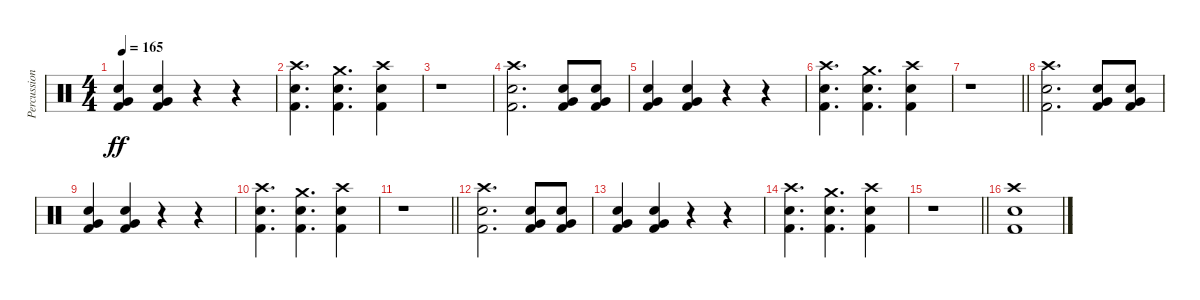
\track ("Percussion" "Percussion") {instrument percussion}
\staff {score}
\articulation defaults
\ts (4 4)
\tempo 165
\clef neutral
\ks c
("Very Low Tom (hit)" "Snare (hit) 2" "Kick (hit) 2").4{dy ff} ("Very Low Tom (hit)" "Snare (hit) 2" "Kick (hit) 2").4 r.4 r.4 |
("Crash high (hit)" "Snare (hit) 2" "Kick (hit) 2").4{d} ("Crash medium (hit)" "Snare (hit) 2" "Kick (hit) 2").4{d} ("Crash high (hit)" "Snare (hit) 2" "Kick (hit) 2").4 |
r.1 |
("Crash high (hit)" "Snare (hit) 2" "Kick (hit) 2").2{d} ("Very Low Tom (hit)" "Snare (hit) 2" "Kick (hit) 2").8 ("Very Low Tom (hit)" "Snare (hit) 2" "Kick (hit) 2").8 |
("Very Low Tom (hit)" "Snare (hit) 2" "Kick (hit) 2").4 ("Very Low Tom (hit)" "Snare (hit) 2" "Kick (hit) 2").4 r.4 r.4 |
("Crash high (hit)" "Snare (hit) 2" "Kick (hit) 2").4{d} ("Crash medium (hit)" "Snare (hit) 2" "Kick (hit) 2").4{d} ("Crash high (hit)" "Snare (hit) 2" "Kick (hit) 2").4 |
\barLineRight lightlight
r.1 |
\section ("" "")
("Crash high (hit)" "Snare (hit) 2" "Kick (hit) 2").2{d} ("Very Low Tom (hit)" "Snare (hit) 2" "Kick (hit) 2").8 ("Very Low Tom (hit)" "Snare (hit) 2" "Kick (hit) 2").8 |
("Very Low Tom (hit)" "Snare (hit) 2" "Kick (hit) 2").4 ("Very Low Tom (hit)" "Snare (hit) 2" "Kick (hit) 2").4 r.4 r.4 |
("Crash high (hit)" "Snare (hit) 2" "Kick (hit) 2").4{d} ("Crash medium (hit)" "Snare (hit) 2" "Kick (hit) 2").4{d} ("Crash high (hit)" "Snare (hit) 2" "Kick (hit) 2").4 |
\barLineRight lightlight
r.1 |
("Crash high (hit)" "Snare (hit) 2" "Kick (hit) 2").2{d} ("Very Low Tom (hit)" "Snare (hit) 2" "Kick (hit) 2").8 ("Very Low Tom (hit)" "Snare (hit) 2" "Kick (hit) 2").8 |
("Very Low Tom (hit)" "Snare (hit) 2" "Kick (hit) 2").4 ("Very Low Tom (hit)" "Snare (hit) 2" "Kick (hit) 2").4 r.4 r.4 |
("Crash high (hit)" "Snare (hit) 2" "Kick (hit) 2").4{d} ("Crash medium (hit)" "Snare (hit) 2" "Kick (hit) 2").4{d} ("Crash high (hit)" "Snare (hit) 2" "Kick (hit) 2").4 |
\barLineRight lightlight
r.1 |
\section ("" "")
("Crash high (hit)" "Snare (hit) 2" "Kick (hit) 2").1
